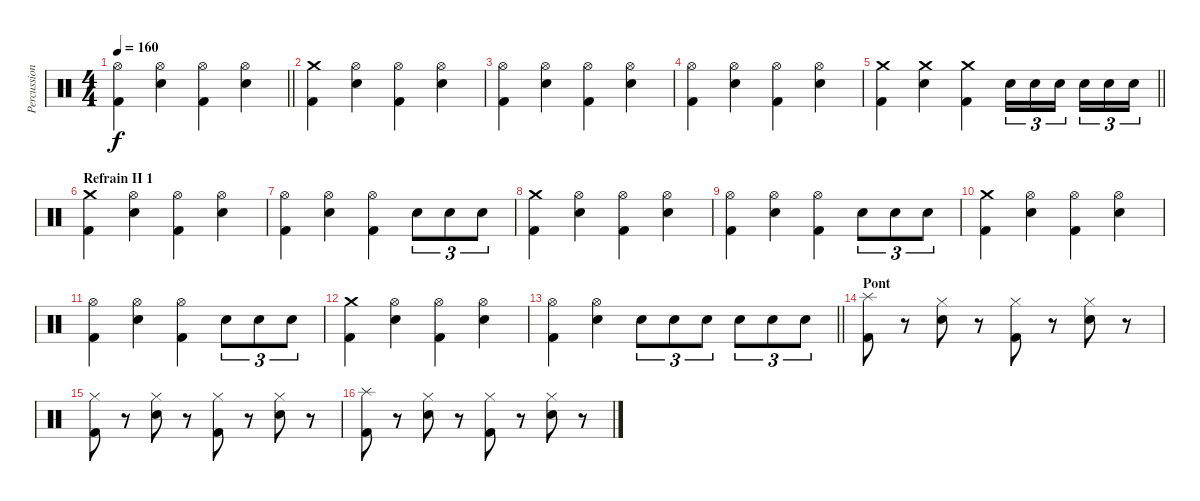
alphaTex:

\track ("Percussions" "Percussion") {instrument percussion}
\staff
\articulation defaults
\ts (4 4)
\tempo 160
\clef neutral
\barLineRight lightlight
\ks c
("Hi-Hat (open)" "Kick (hit) 2").4{dy f} ("Hi-Hat (open)" "Electric Snare (hit)").4 ("Hi-Hat (open)" "Kick (hit) 2").4 ("Hi-Hat (open)" "Electric Snare (hit)").4 |
("Crash medium (hit)" "Kick (hit) 2").4 ("Hi-Hat (open)" "Electric Snare (hit)").4 ("Hi-Hat (open)" "Kick (hit) 2").4 ("Hi-Hat (open)" "Electric Snare (hit)").4 |
("Hi-Hat (open)" "Kick (hit) 2").4 ("Hi-Hat (open)" "Electric Snare (hit)").4 ("Hi-Hat (open)" "Kick (hit) 2").4 ("Hi-Hat (open)" "Electric Snare (hit)").4 |
("Hi-Hat (open)" "Kick (hit) 2").4 ("Hi-Hat (open)" "Electric Snare (hit)").4 ("Hi-Hat (open)" "Kick (hit) 2").4 ("Hi-Hat (open)" "Electric Snare (hit)").4 |
\barLineRight lightlight
("Crash medium (hit)" "Kick (hit) 2").4 ("Crash medium (hit)" "Electric Snare (hit)").4 ("Crash medium (hit)" "Kick (hit) 2").4 "Electric Snare (hit)".16{tu (3 2)} "Electric Snare (hit)".16{tu (3 2)} "Electric Snare (hit)".16{tu (3 2) beam splitsecondary} "Electric Snare (hit)".16{tu (3 2)} "Electric Snare (hit)".16{tu (3 2)} "Electric Snare (hit)".16{tu (3 2)} |
\section ("" "Refrain II 1")
("Crash medium (hit)" "Kick (hit) 2").4 ("Hi-Hat (open)" "Electric Snare (hit)").4 ("Hi-Hat (open)" "Kick (hit) 2").4 ("Hi-Hat (open)" "Electric Snare (hit)").4 |
("Hi-Hat (open)" "Kick (hit) 2").4 ("Hi-Hat (open)" "Electric Snare (hit)").4 ("Hi-Hat (open)" "Kick (hit) 2").4 "Electric Snare (hit)".8{tu (3 2)} "Electric Snare (hit)".8{tu (3 2)} "Electric Snare (hit)".8{tu (3 2)} |
("Crash medium (hit)" "Kick (hit) 2").4 ("Hi-Hat (open)" "Electric Snare (hit)").4 ("Hi-Hat (open)" "Kick (hit) 2").4 ("Hi-Hat (open)" "Electric Snare (hit)").4 |
("Hi-Hat (open)" "Kick (hit) 2").4 ("Hi-Hat (open)" "Electric Snare (hit)").4 ("Hi-Hat (open)" "Kick (hit) 2").4 "Electric Snare (hit)".8{tu (3 2)} "Electric Snare (hit)".8{tu (3 2)} "Electric Snare (hit)".8{tu (3 2)} |
("Crash medium (hit)" "Kick (hit) 2").4 ("Hi-Hat (open)" "Electric Snare (hit)").4 ("Hi-Hat (open)" "Kick (hit) 2").4 ("Hi-Hat (open)" "Electric Snare (hit)").4 |
("Hi-Hat (open)" "Kick (hit) 2").4 ("Hi-Hat (open)" "Electric Snare (hit)").4 ("Hi-Hat (open)" "Kick (hit) 2").4 "Electric Snare (hit)".8{tu (3 2)} "Electric Snare (hit)".8{tu (3 2)} "Electric Snare (hit)".8{tu (3 2)} |
("Crash medium (hit)" "Kick (hit) 2").4 ("Hi-Hat (open)" "Electric Snare (hit)").4 ("Hi-Hat (open)" "Kick (hit) 2").4 ("Hi-Hat (open)" "Electric Snare (hit)").4 |
\barLineRight lightlight
("Hi-Hat (open)" "Kick (hit) 2").4 ("Hi-Hat (open)" "Electric Snare (hit)").4 "Electric Snare (hit)".8{tu (3 2)} "Electric Snare (hit)".8{tu (3 2)} "Electric Snare (hit)".8{tu (3 2)} "Electric Snare (hit)".8{tu (3 2)} "Electric Snare (hit)".8{tu (3 2)} "Electric Snare (hit)".8{tu (3 2)} |
\section ("" "Pont")
("Splash (hit)" "Kick (hit) 2").8 r.8 ("Hi-Hat (closed)" "Electric Snare (hit)").8 r.8 ("Hi-Hat (closed)" "Kick (hit) 2").8 r.8 ("Hi-Hat (closed)" "Electric Snare (hit)").8 r.8 |
("Hi-Hat (closed)" "Kick (hit) 2").8 r.8 ("Hi-Hat (closed)" "Electric Snare (hit)").8 r.8 ("Hi-Hat (closed)" "Kick (hit) 2").8 r.8 ("Hi-Hat (closed)" "Electric Snare (hit)").8 r.8 |
("Splash (hit)" "Kick (hit) 2").8 r.8 ("Hi-Hat (closed)" "Electric Snare (hit)").8 r.8 ("Hi-Hat (closed)" "Kick (hit) 2").8 r.8 ("Hi-Hat (closed)" "Electric Snare (hit)").8 r.8
